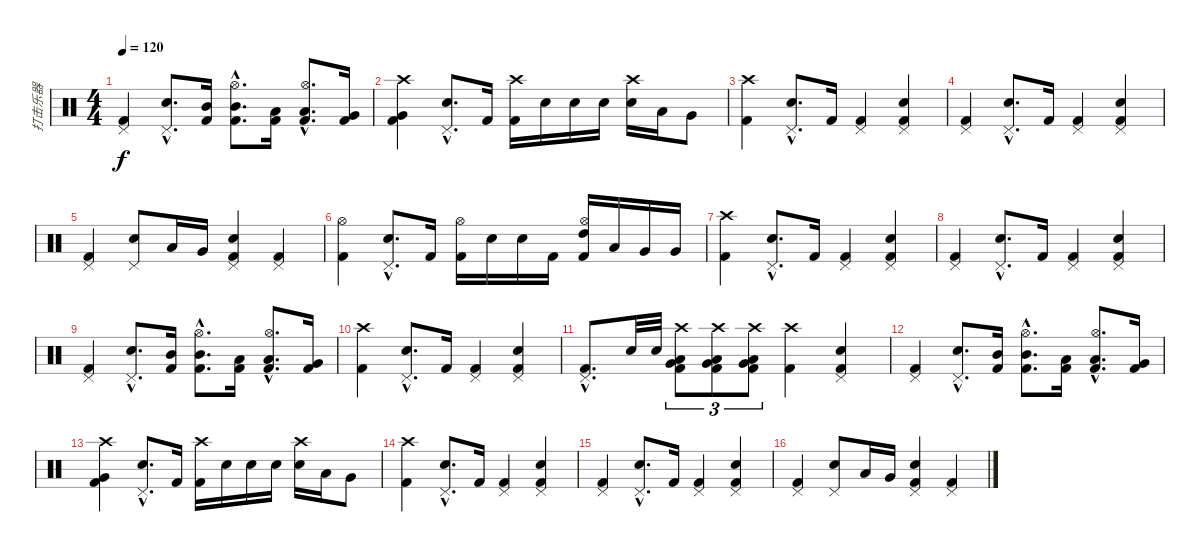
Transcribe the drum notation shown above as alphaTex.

\track ("打击乐器" "打击乐器") {instrument percussion}
\staff {score}
\articulation defaults
\ts (4 4)
\tempo 120
\clef neutral
\ks c
("Pedal Hi-Hat (hit)" "Kick (hit) 2").4{dy f} ("Pedal Hi-Hat (hit)"{hac} "Snare (hit) 2"{hac}).8{d} ("Mid Tom (hit)" "Kick (hit) 2").16 ("Hi-Hat (open)"{hac} "Mid Tom (hit)"{hac} "Kick (hit) 2"{hac}).8{d} ("Low Tom (hit)" "Kick (hit) 2").16 ("Hi-Hat (open)"{hac} "Low Tom (hit)"{hac} "Kick (hit) 2"{hac}).8{d} ("Very Low Tom (hit)" "Kick (hit) 2").16 |
("Crash high (hit)" "Very Low Tom (hit)" "Kick (hit) 2").4 ("Pedal Hi-Hat (hit)"{hac} "Snare (hit) 2"{hac}).8{d} "Kick (hit) 2".16 ("Crash high (hit)" "Kick (hit) 2").16 "Snare (hit) 2".16 "Snare (hit) 2".16 "Snare (hit) 2".16 ("Crash high (hit)" "Snare (hit) 2").16 "Low Tom (hit)".16 "Very Low Tom (hit)".8 |
("Crash high (hit)" "Kick (hit) 2").4 ("Pedal Hi-Hat (hit)"{hac} "Snare (hit) 2"{hac}).8{d} "Kick (hit) 2".16 ("Pedal Hi-Hat (hit)" "Kick (hit) 2").4 ("Pedal Hi-Hat (hit)" "Snare (hit) 2" "Kick (hit) 2").4 |
("Pedal Hi-Hat (hit)" "Kick (hit) 2").4 ("Pedal Hi-Hat (hit)"{hac} "Snare (hit) 2"{hac}).8{d} "Kick (hit) 2".16 ("Pedal Hi-Hat (hit)" "Kick (hit) 2").4 ("Pedal Hi-Hat (hit)" "Snare (hit) 2" "Kick (hit) 2").4 |
("Pedal Hi-Hat (hit)" "Kick (hit) 2").4 ("Pedal Hi-Hat (hit)" "Snare (hit) 2").8 "Low Tom (hit)".16 "Very Low Tom (hit)".16 ("Pedal Hi-Hat (hit)" "Snare (hit) 2" "Kick (hit) 2").4 ("Pedal Hi-Hat (hit)" "Kick (hit) 2").4 |
("Hi-Hat (open)" "Kick (hit) 2").4 ("Pedal Hi-Hat (hit)"{hac} "Snare (hit) 2"{hac}).8{d} "Kick (hit) 2".16 ("Hi-Hat (open)" "Kick (hit) 2").16 "Snare (hit) 2".16 "Snare (hit) 2".16 "Kick (hit) 2".16 ("Hi-Hat (open)" "High Tom (hit)" "Kick (hit) 2").16 "Low Tom (hit)".16 "Very Low Tom (hit)".16 "Very Low Tom (hit)".16 |
("Crash high (hit)" "Kick (hit) 2").4 ("Pedal Hi-Hat (hit)"{hac} "Snare (hit) 2"{hac}).8{d} "Kick (hit) 2".16 ("Pedal Hi-Hat (hit)" "Kick (hit) 2").4 ("Pedal Hi-Hat (hit)" "Snare (hit) 2" "Kick (hit) 2").4 |
("Pedal Hi-Hat (hit)" "Kick (hit) 2").4 ("Pedal Hi-Hat (hit)"{hac} "Snare (hit) 2"{hac}).8{d} "Kick (hit) 2".16 ("Pedal Hi-Hat (hit)" "Kick (hit) 2").4 ("Pedal Hi-Hat (hit)" "Snare (hit) 2" "Kick (hit) 2").4 |
("Pedal Hi-Hat (hit)" "Kick (hit) 2").4 ("Pedal Hi-Hat (hit)"{hac} "Snare (hit) 2"{hac}).8{d} ("Mid Tom (hit)" "Kick (hit) 2").16 ("Hi-Hat (open)"{hac} "Mid Tom (hit)"{hac} "Kick (hit) 2"{hac}).8{d} ("Low Tom (hit)" "Kick (hit) 2").16 ("Hi-Hat (open)"{hac} "Low Tom (hit)"{hac} "Kick (hit) 2"{hac}).8{d} ("Very Low Tom (hit)" "Kick (hit) 2").16 |
("Crash high (hit)" "Kick (hit) 2").4 ("Pedal Hi-Hat (hit)"{hac} "Snare (hit) 2"{hac}).8{d} "Kick (hit) 2".16 ("Pedal Hi-Hat (hit)" "Kick (hit) 2").4 ("Pedal Hi-Hat (hit)" "Snare (hit) 2" "Kick (hit) 2").4 |
("Pedal Hi-Hat (hit)"{hac} "Kick (hit) 2"{hac}).8{d} "Snare (hit) 2".32 "Snare (hit) 2".32 ("Crash high (hit)" "Very Low Tom (hit)" "Low Tom (hit)" "Kick (hit) 2").8{tu (3 2)} ("Crash high (hit)" "Very Low Tom (hit)" "Low Tom (hit)" "Kick (hit) 2").8{tu (3 2)} ("Crash high (hit)" "Very Low Tom (hit)" "Low Tom (hit)" "Kick (hit) 2").8{tu (3 2)} ("Crash high (hit)" "Kick (hit) 2").4 ("Pedal Hi-Hat (hit)" "Snare (hit) 2" "Kick (hit) 2").4 |
("Pedal Hi-Hat (hit)" "Kick (hit) 2").4 ("Pedal Hi-Hat (hit)"{hac} "Snare (hit) 2"{hac}).8{d} ("Mid Tom (hit)" "Kick (hit) 2").16 ("Hi-Hat (open)"{hac} "Mid Tom (hit)"{hac} "Kick (hit) 2"{hac}).8{d} ("Low Tom (hit)" "Kick (hit) 2").16 ("Hi-Hat (open)"{hac} "Low Tom (hit)"{hac} "Kick (hit) 2"{hac}).8{d} ("Very Low Tom (hit)" "Kick (hit) 2").16 |
("Crash high (hit)" "Very Low Tom (hit)" "Kick (hit) 2").4 ("Pedal Hi-Hat (hit)"{hac} "Snare (hit) 2"{hac}).8{d} "Kick (hit) 2".16 ("Crash high (hit)" "Kick (hit) 2").16 "Snare (hit) 2".16 "Snare (hit) 2".16 "Snare (hit) 2".16 ("Crash high (hit)" "Snare (hit) 2").16 "Low Tom (hit)".16 "Very Low Tom (hit)".8 |
("Crash high (hit)" "Kick (hit) 2").4 ("Pedal Hi-Hat (hit)"{hac} "Snare (hit) 2"{hac}).8{d} "Kick (hit) 2".16 ("Pedal Hi-Hat (hit)" "Kick (hit) 2").4 ("Pedal Hi-Hat (hit)" "Snare (hit) 2" "Kick (hit) 2").4 |
("Pedal Hi-Hat (hit)" "Kick (hit) 2").4 ("Pedal Hi-Hat (hit)"{hac} "Snare (hit) 2"{hac}).8{d} "Kick (hit) 2".16 ("Pedal Hi-Hat (hit)" "Kick (hit) 2").4 ("Pedal Hi-Hat (hit)" "Snare (hit) 2" "Kick (hit) 2").4 |
("Pedal Hi-Hat (hit)" "Kick (hit) 2").4 ("Pedal Hi-Hat (hit)" "Snare (hit) 2").8 "Low Tom (hit)".16 "Very Low Tom (hit)".16 ("Pedal Hi-Hat (hit)" "Snare (hit) 2" "Kick (hit) 2").4 ("Pedal Hi-Hat (hit)" "Kick (hit) 2").4
